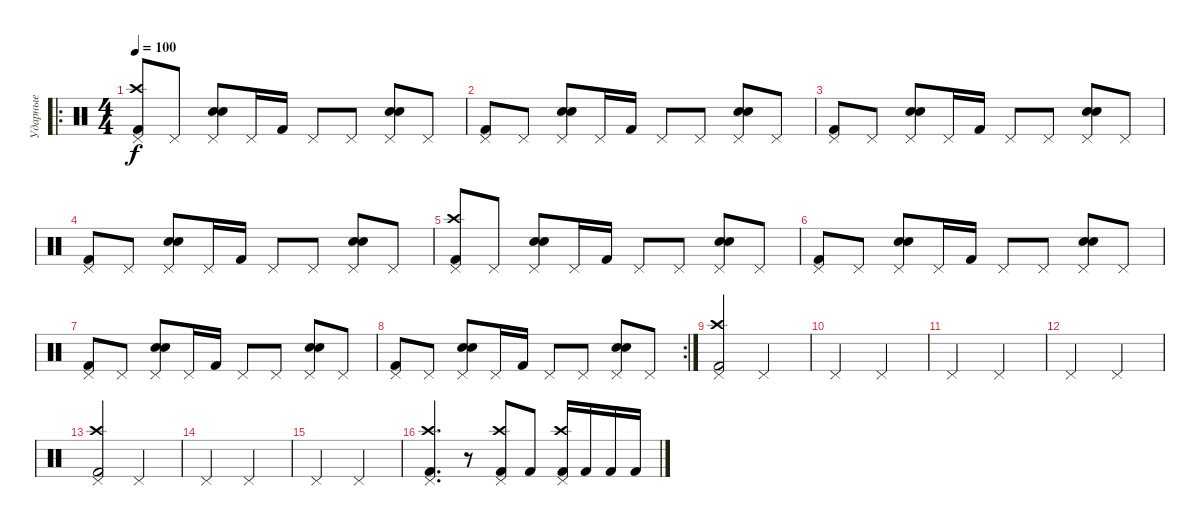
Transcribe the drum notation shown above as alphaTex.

\track ("Ударные" "Ударные") {instrument percussion}
\staff {score}
\articulation defaults
\ro
\ts (4 4)
\tempo 100
\clef neutral
\ks c
("Kick (hit) 2" "Crash high (hit)" "Pedal Hi-Hat (hit)").8{dy f} "Pedal Hi-Hat (hit)".8 ("Hand Clap (hit)" "Electric Snare (hit)" "Pedal Hi-Hat (hit)").8 "Pedal Hi-Hat (hit)".16 "Kick (hit) 2".16 "Pedal Hi-Hat (hit)".8 "Pedal Hi-Hat (hit)".8 ("Hand Clap (hit)" "Electric Snare (hit)" "Pedal Hi-Hat (hit)").8 "Pedal Hi-Hat (hit)".8 |
("Kick (hit) 2" "Pedal Hi-Hat (hit)").8 "Pedal Hi-Hat (hit)".8 ("Hand Clap (hit)" "Electric Snare (hit)" "Pedal Hi-Hat (hit)").8 "Pedal Hi-Hat (hit)".16 "Kick (hit) 2".16 "Pedal Hi-Hat (hit)".8 "Pedal Hi-Hat (hit)".8 ("Hand Clap (hit)" "Electric Snare (hit)" "Pedal Hi-Hat (hit)").8 "Pedal Hi-Hat (hit)".8 |
("Kick (hit) 2" "Pedal Hi-Hat (hit)").8 "Pedal Hi-Hat (hit)".8 ("Hand Clap (hit)" "Electric Snare (hit)" "Pedal Hi-Hat (hit)").8 "Pedal Hi-Hat (hit)".16 "Kick (hit) 2".16 "Pedal Hi-Hat (hit)".8 "Pedal Hi-Hat (hit)".8 ("Hand Clap (hit)" "Electric Snare (hit)" "Pedal Hi-Hat (hit)").8 "Pedal Hi-Hat (hit)".8 |
("Kick (hit) 2" "Pedal Hi-Hat (hit)").8 "Pedal Hi-Hat (hit)".8 ("Hand Clap (hit)" "Electric Snare (hit)" "Pedal Hi-Hat (hit)").8 "Pedal Hi-Hat (hit)".16 "Kick (hit) 2".16 "Pedal Hi-Hat (hit)".8 "Pedal Hi-Hat (hit)".8 ("Hand Clap (hit)" "Electric Snare (hit)" "Pedal Hi-Hat (hit)").8 "Pedal Hi-Hat (hit)".8 |
("Kick (hit) 2" "Crash high (hit)" "Pedal Hi-Hat (hit)").8 "Pedal Hi-Hat (hit)".8 ("Hand Clap (hit)" "Electric Snare (hit)" "Pedal Hi-Hat (hit)").8 "Pedal Hi-Hat (hit)".16 "Kick (hit) 2".16 "Pedal Hi-Hat (hit)".8 "Pedal Hi-Hat (hit)".8 ("Hand Clap (hit)" "Electric Snare (hit)" "Pedal Hi-Hat (hit)").8 "Pedal Hi-Hat (hit)".8 |
("Kick (hit) 2" "Pedal Hi-Hat (hit)").8 "Pedal Hi-Hat (hit)".8 ("Hand Clap (hit)" "Electric Snare (hit)" "Pedal Hi-Hat (hit)").8 "Pedal Hi-Hat (hit)".16 "Kick (hit) 2".16 "Pedal Hi-Hat (hit)".8 "Pedal Hi-Hat (hit)".8 ("Hand Clap (hit)" "Electric Snare (hit)" "Pedal Hi-Hat (hit)").8 "Pedal Hi-Hat (hit)".8 |
("Kick (hit) 2" "Pedal Hi-Hat (hit)").8 "Pedal Hi-Hat (hit)".8 ("Hand Clap (hit)" "Electric Snare (hit)" "Pedal Hi-Hat (hit)").8 "Pedal Hi-Hat (hit)".16 "Kick (hit) 2".16 "Pedal Hi-Hat (hit)".8 "Pedal Hi-Hat (hit)".8 ("Hand Clap (hit)" "Electric Snare (hit)" "Pedal Hi-Hat (hit)").8 "Pedal Hi-Hat (hit)".8 |
\rc 2
("Kick (hit) 2" "Pedal Hi-Hat (hit)").8 "Pedal Hi-Hat (hit)".8 ("Hand Clap (hit)" "Electric Snare (hit)" "Pedal Hi-Hat (hit)").8 "Pedal Hi-Hat (hit)".16 "Kick (hit) 2".16 "Pedal Hi-Hat (hit)".8 "Pedal Hi-Hat (hit)".8 ("Hand Clap (hit)" "Electric Snare (hit)" "Pedal Hi-Hat (hit)").8 "Pedal Hi-Hat (hit)".8 |
("Kick (hit) 2" "Crash high (hit)" "Pedal Hi-Hat (hit)").2 "Pedal Hi-Hat (hit)".2 |
"Pedal Hi-Hat (hit)".2 "Pedal Hi-Hat (hit)".2 |
"Pedal Hi-Hat (hit)".2 "Pedal Hi-Hat (hit)".2 |
"Pedal Hi-Hat (hit)".2 "Pedal Hi-Hat (hit)".2 |
("Kick (hit) 2" "Crash high (hit)" "Pedal Hi-Hat (hit)").2 "Pedal Hi-Hat (hit)".2 |
"Pedal Hi-Hat (hit)".2 "Pedal Hi-Hat (hit)".2 |
"Pedal Hi-Hat (hit)".2 "Pedal Hi-Hat (hit)".2 |
("Kick (hit) 2" "Crash high (hit)" "Pedal Hi-Hat (hit)").4{d} r.8 ("Kick (hit) 2" "Crash high (hit)" "Pedal Hi-Hat (hit)").8 "Kick (hit) 2".8 ("Kick (hit) 2" "Crash high (hit)" "Pedal Hi-Hat (hit)").16 "Kick (hit) 2".16 "Kick (hit) 2".16 "Kick (hit) 2".16
